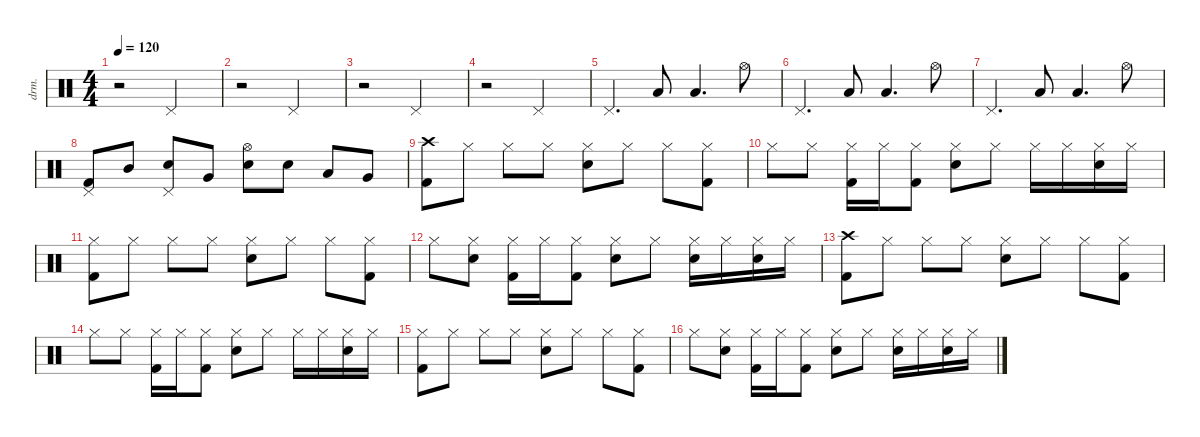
\defaultSystemsLayout 4
\hideDynamics
\bracketExtendMode nobrackets
\track ("Drumkit" "drm.") {instrument percussion}
\staff {score}
\articulation defaults
\ts (4 4)
\tempo 120
\clef neutral
\ks c
r.2{dy mf beam Down} "Pedal Hi-Hat (hit)".2{beam Up} |
r.2{beam Down} "Pedal Hi-Hat (hit)".2{beam Up} |
r.2{beam Down} "Pedal Hi-Hat (hit)".2{beam Up} |
r.2{beam Down} "Pedal Hi-Hat (hit)".2{beam Up} |
"Pedal Hi-Hat (hit)".4{d beam Up} "Low Floor Tom (hit)".8{beam Up} "Low Floor Tom (hit)".4{d beam Up} "Hi-Hat (open)".8{beam Down} |
"Pedal Hi-Hat (hit)".4{d beam Up} "Low Floor Tom (hit)".8{beam Up} "Low Floor Tom (hit)".4{d beam Up} "Hi-Hat (open)".8{beam Down} |
"Pedal Hi-Hat (hit)".4{d beam Up} "Low Floor Tom (hit)".8{beam Up} "Low Floor Tom (hit)".4{d beam Up} "Hi-Hat (open)".8{beam Down} |
("Kick (hit) 2" "Pedal Hi-Hat (hit)").8{beam Up} "Mid Tom (hit)".8{beam Up} ("Snare (hit) 2" "Pedal Hi-Hat (hit)").8{beam Up} "Very Low Tom (hit)".8{beam Up} ("Snare (hit) 2" "Hi-Hat (open)").8{beam Down} "Snare (hit) 2".8{beam Down} "Low Tom (hit)".8{beam Up} "Very Low Tom (hit)".8{beam Up} |
\beaming (8 2 2 2 2)
("Crash high (hit)" "Kick (hit) 2").8{beam Down} "Hi-Hat (closed)".8{beam Down} "Hi-Hat (closed)".8{beam Down} "Hi-Hat (closed)".8{beam Down} ("Hi-Hat (closed)" "Snare (hit) 2").8{beam Down} "Hi-Hat (closed)".8{beam Down} "Hi-Hat (closed)".8{beam Down} ("Hi-Hat (closed)" "Kick (hit) 2").8{beam Down} |
"Hi-Hat (closed)".8{beam Down} "Hi-Hat (closed)".8{beam Down} ("Hi-Hat (closed)" "Kick (hit) 2").16{beam Down} "Hi-Hat (closed)".16{beam Down} ("Hi-Hat (closed)" "Kick (hit) 2").8{beam Down} ("Hi-Hat (closed)" "Snare (hit) 2").8{beam Down} "Hi-Hat (closed)".8{beam Down} "Hi-Hat (closed)".16{beam Down} "Hi-Hat (closed)".16{beam Down} ("Hi-Hat (closed)" "Snare (hit) 2").16{dy p beam Down} "Hi-Hat (closed)".16{beam Down} |
("Hi-Hat (closed)" "Kick (hit) 2").8{dy mf beam Down} "Hi-Hat (closed)".8{beam Down} "Hi-Hat (closed)".8{beam Down} "Hi-Hat (closed)".8{beam Down} ("Hi-Hat (closed)" "Snare (hit) 2").8{beam Down} "Hi-Hat (closed)".8{beam Down} "Hi-Hat (closed)".8{beam Down} ("Hi-Hat (closed)" "Kick (hit) 2").8{beam Down} |
"Hi-Hat (closed)".8{beam Down} ("Hi-Hat (closed)" "Snare (hit) 2").8{beam Down} ("Hi-Hat (closed)" "Kick (hit) 2").16{beam Down} "Hi-Hat (closed)".16{beam Down} ("Hi-Hat (closed)" "Kick (hit) 2").8{beam Down} ("Hi-Hat (closed)" "Snare (hit) 2").8{beam Down} "Hi-Hat (closed)".8{beam Down} ("Hi-Hat (closed)" "Snare (hit) 2").16{beam Down} "Hi-Hat (closed)".16{beam Down} ("Hi-Hat (closed)" "Snare (hit) 2").16{dy p beam Down} "Hi-Hat (closed)".16{beam Down} |
("Crash high (hit)" "Kick (hit) 2").8{dy mf beam Down} "Hi-Hat (closed)".8{beam Down} "Hi-Hat (closed)".8{beam Down} "Hi-Hat (closed)".8{beam Down} ("Hi-Hat (closed)" "Snare (hit) 2").8{beam Down} "Hi-Hat (closed)".8{beam Down} "Hi-Hat (closed)".8{beam Down} ("Hi-Hat (closed)" "Kick (hit) 2").8{beam Down} |
"Hi-Hat (closed)".8{beam Down} "Hi-Hat (closed)".8{beam Down} ("Hi-Hat (closed)" "Kick (hit) 2").16{beam Down} "Hi-Hat (closed)".16{beam Down} ("Hi-Hat (closed)" "Kick (hit) 2").8{beam Down} ("Hi-Hat (closed)" "Snare (hit) 2").8{beam Down} "Hi-Hat (closed)".8{beam Down} "Hi-Hat (closed)".16{beam Down} "Hi-Hat (closed)".16{beam Down} ("Hi-Hat (closed)" "Snare (hit) 2").16{dy p beam Down} "Hi-Hat (closed)".16{beam Down} |
("Hi-Hat (closed)" "Kick (hit) 2").8{dy mf beam Down} "Hi-Hat (closed)".8{beam Down} "Hi-Hat (closed)".8{beam Down} "Hi-Hat (closed)".8{beam Down} ("Hi-Hat (closed)" "Snare (hit) 2").8{beam Down} "Hi-Hat (closed)".8{beam Down} "Hi-Hat (closed)".8{beam Down} ("Hi-Hat (closed)" "Kick (hit) 2").8{beam Down} |
"Hi-Hat (closed)".8{beam Down} ("Hi-Hat (closed)" "Snare (hit) 2").8{beam Down} ("Hi-Hat (closed)" "Kick (hit) 2").16{beam Down} "Hi-Hat (closed)".16{beam Down} ("Hi-Hat (closed)" "Kick (hit) 2").8{beam Down} ("Hi-Hat (closed)" "Snare (hit) 2").8{beam Down} "Hi-Hat (closed)".8{beam Down} ("Hi-Hat (closed)" "Snare (hit) 2").16{beam Down} "Hi-Hat (closed)".16{beam Down} ("Hi-Hat (closed)" "Snare (hit) 2").16{dy p beam Down} "Hi-Hat (closed)".16{beam Down}
